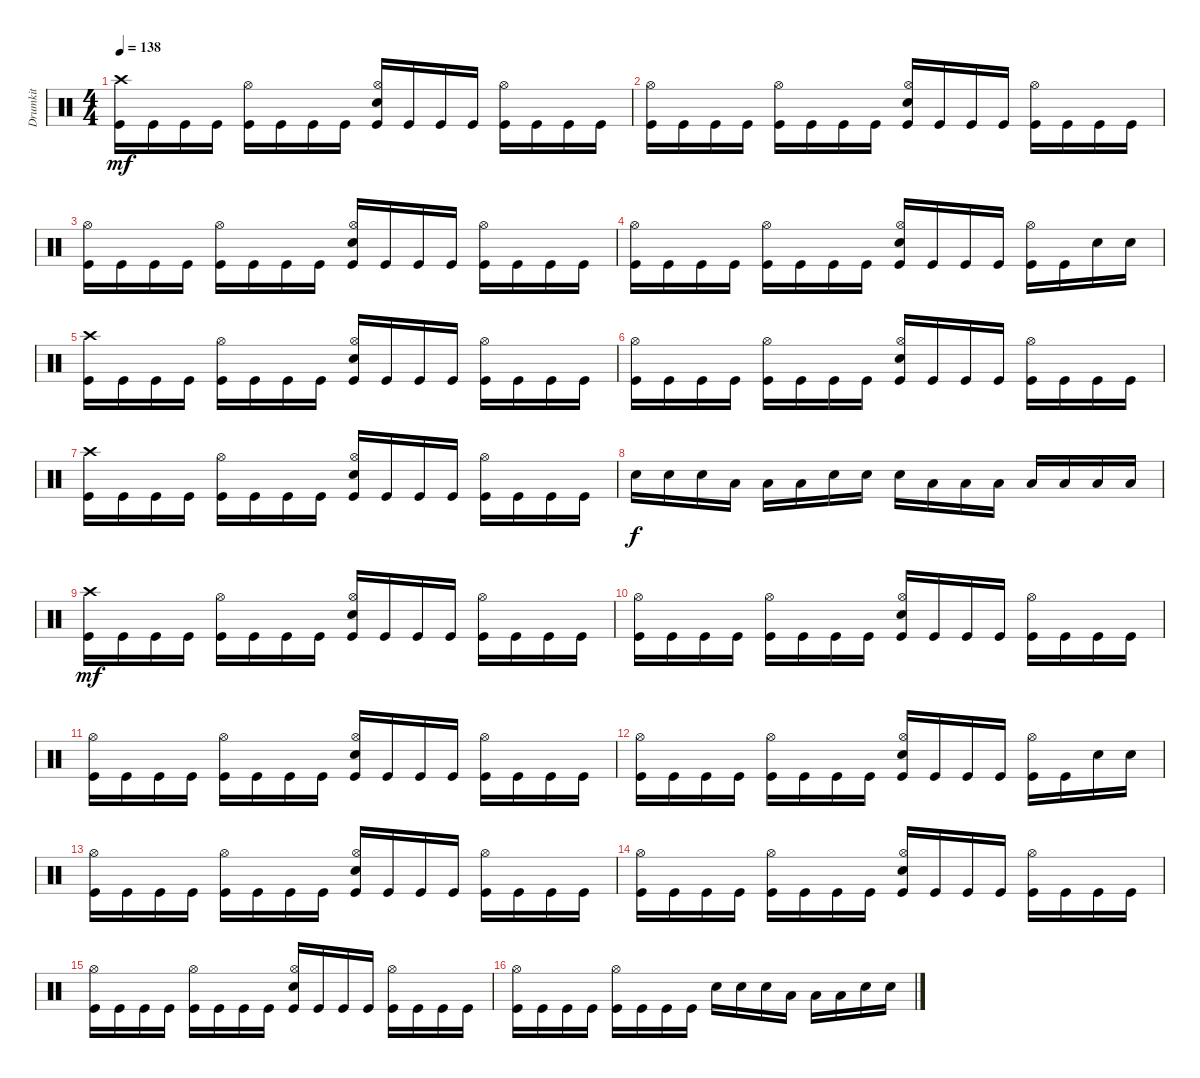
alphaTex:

\track ("Drumkit" "Drumkit") {instrument percussion}
\staff {score}
\articulation defaults
\ts (4 4)
\tempo 138
\clef neutral
\ks c
("Crash high (hit)" "Kick (hit)").16{dy mf} "Kick (hit)".16 "Kick (hit)".16 "Kick (hit)".16 ("Hi-Hat (open)" "Kick (hit)").16 "Kick (hit)".16 "Kick (hit)".16 "Kick (hit)".16 ("Hi-Hat (open)" "Snare (hit) 2" "Kick (hit)").16 "Kick (hit)".16 "Kick (hit)".16 "Kick (hit)".16 ("Hi-Hat (open)" "Kick (hit)").16 "Kick (hit)".16 "Kick (hit)".16 "Kick (hit)".16 |
("Hi-Hat (open)" "Kick (hit)").16 "Kick (hit)".16 "Kick (hit)".16 "Kick (hit)".16 ("Hi-Hat (open)" "Kick (hit)").16 "Kick (hit)".16 "Kick (hit)".16 "Kick (hit)".16 ("Hi-Hat (open)" "Snare (hit) 2" "Kick (hit)").16 "Kick (hit)".16 "Kick (hit)".16 "Kick (hit)".16 ("Hi-Hat (open)" "Kick (hit)").16 "Kick (hit)".16 "Kick (hit)".16 "Kick (hit)".16 |
("Hi-Hat (open)" "Kick (hit)").16 "Kick (hit)".16 "Kick (hit)".16 "Kick (hit)".16 ("Hi-Hat (open)" "Kick (hit)").16 "Kick (hit)".16 "Kick (hit)".16 "Kick (hit)".16 ("Hi-Hat (open)" "Snare (hit) 2" "Kick (hit)").16 "Kick (hit)".16 "Kick (hit)".16 "Kick (hit)".16 ("Hi-Hat (open)" "Kick (hit)").16 "Kick (hit)".16 "Kick (hit)".16 "Kick (hit)".16 |
("Hi-Hat (open)" "Kick (hit)").16 "Kick (hit)".16 "Kick (hit)".16 "Kick (hit)".16 ("Hi-Hat (open)" "Kick (hit)").16 "Kick (hit)".16 "Kick (hit)".16 "Kick (hit)".16 ("Hi-Hat (open)" "Snare (hit) 2" "Kick (hit)").16 "Kick (hit)".16 "Kick (hit)".16 "Kick (hit)".16 ("Hi-Hat (open)" "Kick (hit)").16 "Kick (hit)".16 "Snare (hit) 2".16 "Snare (hit) 2".16 |
("Crash high (hit)" "Kick (hit)").16 "Kick (hit)".16 "Kick (hit)".16 "Kick (hit)".16 ("Hi-Hat (open)" "Kick (hit)").16 "Kick (hit)".16 "Kick (hit)".16 "Kick (hit)".16 ("Hi-Hat (open)" "Snare (hit) 2" "Kick (hit)").16 "Kick (hit)".16 "Kick (hit)".16 "Kick (hit)".16 ("Hi-Hat (open)" "Kick (hit)").16 "Kick (hit)".16 "Kick (hit)".16 "Kick (hit)".16 |
("Hi-Hat (open)" "Kick (hit)").16 "Kick (hit)".16 "Kick (hit)".16 "Kick (hit)".16 ("Hi-Hat (open)" "Kick (hit)").16 "Kick (hit)".16 "Kick (hit)".16 "Kick (hit)".16 ("Hi-Hat (open)" "Snare (hit) 2" "Kick (hit)").16 "Kick (hit)".16 "Kick (hit)".16 "Kick (hit)".16 ("Hi-Hat (open)" "Kick (hit)").16 "Kick (hit)".16 "Kick (hit)".16 "Kick (hit)".16 |
("Crash high (hit)" "Kick (hit)").16 "Kick (hit)".16 "Kick (hit)".16 "Kick (hit)".16 ("Hi-Hat (open)" "Kick (hit)").16 "Kick (hit)".16 "Kick (hit)".16 "Kick (hit)".16 ("Hi-Hat (open)" "Snare (hit) 2" "Kick (hit)").16 "Kick (hit)".16 "Kick (hit)".16 "Kick (hit)".16 ("Hi-Hat (open)" "Kick (hit)").16 "Kick (hit)".16 "Kick (hit)".16 "Kick (hit)".16 |
"Snare (hit) 2".16{dy f} "Snare (hit) 2".16 "Snare (hit) 2".16 "Low Tom (hit)".16 "Low Tom (hit)".16 "Low Tom (hit)".16 "Snare (hit) 2".16 "Snare (hit) 2".16 "Snare (hit) 2".16 "Low Tom (hit)".16 "Low Tom (hit)".16 "Low Tom (hit)".16 "Low Floor Tom (hit)".16 "Low Floor Tom (hit)".16 "Low Floor Tom (hit)".16 "Low Floor Tom (hit)".16 |
("Crash high (hit)" "Kick (hit)").16{dy mf} "Kick (hit)".16 "Kick (hit)".16 "Kick (hit)".16 ("Hi-Hat (open)" "Kick (hit)").16 "Kick (hit)".16 "Kick (hit)".16 "Kick (hit)".16 ("Hi-Hat (open)" "Snare (hit) 2" "Kick (hit)").16 "Kick (hit)".16 "Kick (hit)".16 "Kick (hit)".16 ("Hi-Hat (open)" "Kick (hit)").16 "Kick (hit)".16 "Kick (hit)".16 "Kick (hit)".16 |
("Hi-Hat (open)" "Kick (hit)").16 "Kick (hit)".16 "Kick (hit)".16 "Kick (hit)".16 ("Hi-Hat (open)" "Kick (hit)").16 "Kick (hit)".16 "Kick (hit)".16 "Kick (hit)".16 ("Hi-Hat (open)" "Snare (hit) 2" "Kick (hit)").16 "Kick (hit)".16 "Kick (hit)".16 "Kick (hit)".16 ("Hi-Hat (open)" "Kick (hit)").16 "Kick (hit)".16 "Kick (hit)".16 "Kick (hit)".16 |
("Hi-Hat (open)" "Kick (hit)").16 "Kick (hit)".16 "Kick (hit)".16 "Kick (hit)".16 ("Hi-Hat (open)" "Kick (hit)").16 "Kick (hit)".16 "Kick (hit)".16 "Kick (hit)".16 ("Hi-Hat (open)" "Snare (hit) 2" "Kick (hit)").16 "Kick (hit)".16 "Kick (hit)".16 "Kick (hit)".16 ("Hi-Hat (open)" "Kick (hit)").16 "Kick (hit)".16 "Kick (hit)".16 "Kick (hit)".16 |
("Hi-Hat (open)" "Kick (hit)").16 "Kick (hit)".16 "Kick (hit)".16 "Kick (hit)".16 ("Hi-Hat (open)" "Kick (hit)").16 "Kick (hit)".16 "Kick (hit)".16 "Kick (hit)".16 ("Hi-Hat (open)" "Snare (hit) 2" "Kick (hit)").16 "Kick (hit)".16 "Kick (hit)".16 "Kick (hit)".16 ("Hi-Hat (open)" "Kick (hit)").16 "Kick (hit)".16 "Snare (hit) 2".16 "Snare (hit) 2".16 |
("Hi-Hat (open)" "Kick (hit)").16 "Kick (hit)".16 "Kick (hit)".16 "Kick (hit)".16 ("Hi-Hat (open)" "Kick (hit)").16 "Kick (hit)".16 "Kick (hit)".16 "Kick (hit)".16 ("Hi-Hat (open)" "Snare (hit) 2" "Kick (hit)").16 "Kick (hit)".16 "Kick (hit)".16 "Kick (hit)".16 ("Hi-Hat (open)" "Kick (hit)").16 "Kick (hit)".16 "Kick (hit)".16 "Kick (hit)".16 |
("Hi-Hat (open)" "Kick (hit)").16 "Kick (hit)".16 "Kick (hit)".16 "Kick (hit)".16 ("Hi-Hat (open)" "Kick (hit)").16 "Kick (hit)".16 "Kick (hit)".16 "Kick (hit)".16 ("Hi-Hat (open)" "Snare (hit) 2" "Kick (hit)").16 "Kick (hit)".16 "Kick (hit)".16 "Kick (hit)".16 ("Hi-Hat (open)" "Kick (hit)").16 "Kick (hit)".16 "Kick (hit)".16 "Kick (hit)".16 |
("Hi-Hat (open)" "Kick (hit)").16 "Kick (hit)".16 "Kick (hit)".16 "Kick (hit)".16 ("Hi-Hat (open)" "Kick (hit)").16 "Kick (hit)".16 "Kick (hit)".16 "Kick (hit)".16 ("Hi-Hat (open)" "Snare (hit) 2" "Kick (hit)").16 "Kick (hit)".16 "Kick (hit)".16 "Kick (hit)".16 ("Hi-Hat (open)" "Kick (hit)").16 "Kick (hit)".16 "Kick (hit)".16 "Kick (hit)".16 |
("Hi-Hat (open)" "Kick (hit)").16 "Kick (hit)".16 "Kick (hit)".16 "Kick (hit)".16 ("Hi-Hat (open)" "Kick (hit)").16 "Kick (hit)".16 "Kick (hit)".16 "Kick (hit)".16 "Snare (hit) 2".16 "Snare (hit) 2".16 "Snare (hit) 2".16 "Low Tom (hit)".16 "Low Tom (hit)".16 "Low Tom (hit)".16 "Snare (hit) 2".16 "Snare (hit) 2".16
